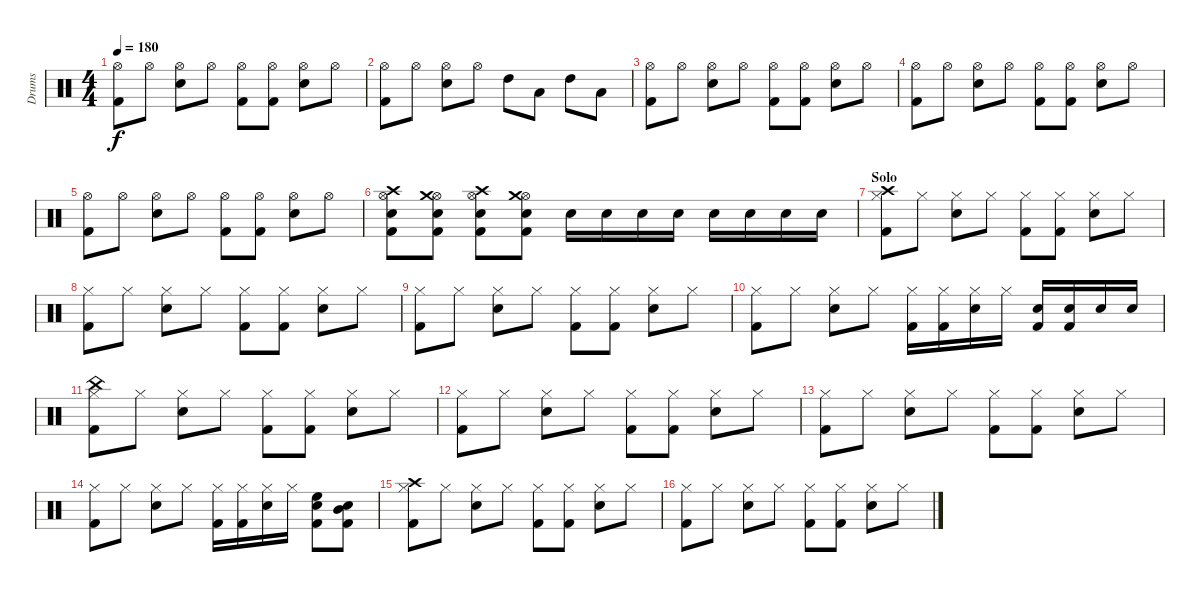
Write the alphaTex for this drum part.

\track ("Drums" "Drums") {instrument percussion}
\staff {score}
\articulation defaults
\ts (4 4)
\tempo 180
\clef neutral
\ks c
("Hi-Hat (open)" "Kick (hit) 2").8{dy f} "Hi-Hat (open)".8 ("Hi-Hat (open)" "Snare (hit) 2").8 "Hi-Hat (open)".8 ("Hi-Hat (open)" "Kick (hit) 2").8 ("Hi-Hat (open)" "Kick (hit) 2").8 ("Hi-Hat (open)" "Snare (hit) 2").8 "Hi-Hat (open)".8 |
("Hi-Hat (open)" "Kick (hit) 2").8 "Hi-Hat (open)".8 ("Hi-Hat (open)" "Snare (hit) 2").8 "Hi-Hat (open)".8 "High Tom (hit)".8 "Low Tom (hit)".8 "High Tom (hit)".8 "Low Tom (hit)".8 |
("Hi-Hat (open)" "Kick (hit) 2").8 "Hi-Hat (open)".8 ("Hi-Hat (open)" "Snare (hit) 2").8 "Hi-Hat (open)".8 ("Hi-Hat (open)" "Kick (hit) 2").8 ("Hi-Hat (open)" "Kick (hit) 2").8 ("Hi-Hat (open)" "Snare (hit) 2").8 "Hi-Hat (open)".8 |
("Hi-Hat (open)" "Kick (hit) 2").8 "Hi-Hat (open)".8 ("Hi-Hat (open)" "Snare (hit) 2").8 "Hi-Hat (open)".8 ("Hi-Hat (open)" "Kick (hit) 2").8 ("Hi-Hat (open)" "Kick (hit) 2").8 ("Hi-Hat (open)" "Snare (hit) 2").8 "Hi-Hat (open)".8 |
("Hi-Hat (open)" "Kick (hit) 2").8 "Hi-Hat (open)".8 ("Hi-Hat (open)" "Snare (hit) 2").8 "Hi-Hat (open)".8 ("Hi-Hat (open)" "Kick (hit) 2").8 ("Hi-Hat (open)" "Kick (hit) 2").8 ("Hi-Hat (open)" "Snare (hit) 2").8 "Hi-Hat (open)".8 |
("Hi-Hat (open)" "Crash high (hit)" "Snare (hit) 2" "Kick (hit) 2").8 ("Hi-Hat (open)" "Crash medium (hit)" "Snare (hit) 2" "Kick (hit) 2").8 ("Hi-Hat (open)" "Crash high (hit)" "Snare (hit) 2" "Kick (hit) 2").8 ("Hi-Hat (open)" "Crash medium (hit)" "Snare (hit) 2" "Kick (hit) 2").8 "Snare (hit) 2".16 "Snare (hit) 2".16 "Snare (hit) 2".16 "Snare (hit) 2".16 "Snare (hit) 2".16 "Snare (hit) 2".16 "Snare (hit) 2".16 "Snare (hit) 2".16 |
\section ("" "Solo")
("Hi-Hat (closed)" "Crash high (hit)" "Kick (hit) 2").8 "Hi-Hat (closed)".8 ("Hi-Hat (closed)" "Snare (hit) 2").8 "Hi-Hat (closed)".8 ("Hi-Hat (closed)" "Kick (hit) 2").8 ("Hi-Hat (closed)" "Kick (hit) 2").8 ("Hi-Hat (closed)" "Snare (hit) 2").8 "Hi-Hat (closed)".8 |
("Hi-Hat (closed)" "Kick (hit) 2").8 "Hi-Hat (closed)".8 ("Hi-Hat (closed)" "Snare (hit) 2").8 "Hi-Hat (closed)".8 ("Hi-Hat (closed)" "Kick (hit) 2").8 ("Hi-Hat (closed)" "Kick (hit) 2").8 ("Hi-Hat (closed)" "Snare (hit) 2").8 "Hi-Hat (closed)".8 |
("Hi-Hat (closed)" "Kick (hit) 2").8 "Hi-Hat (closed)".8 ("Hi-Hat (closed)" "Snare (hit) 2").8 "Hi-Hat (closed)".8 ("Hi-Hat (closed)" "Kick (hit) 2").8 ("Hi-Hat (closed)" "Kick (hit) 2").8 ("Hi-Hat (closed)" "Snare (hit) 2").8 "Hi-Hat (closed)".8 |
("Hi-Hat (closed)" "Kick (hit) 2").8 "Hi-Hat (closed)".8 ("Hi-Hat (closed)" "Snare (hit) 2").8 "Hi-Hat (closed)".8 ("Hi-Hat (closed)" "Kick (hit) 2").16 ("Hi-Hat (closed)" "Kick (hit) 2").16 ("Hi-Hat (closed)" "Snare (hit) 2").16 "Hi-Hat (closed)".16 ("Snare (hit) 2" "Kick (hit) 2").16 ("Snare (hit) 2" "Kick (hit) 2").16 "Snare (hit) 2".16 "Snare (hit) 2".16 |
("Hi-Hat (closed)" "China (hit)" "Kick (hit) 2").8 "Hi-Hat (closed)".8 ("Hi-Hat (closed)" "Snare (hit) 2").8 "Hi-Hat (closed)".8 ("Hi-Hat (closed)" "Kick (hit) 2").8 ("Hi-Hat (closed)" "Kick (hit) 2").8 ("Hi-Hat (closed)" "Snare (hit) 2").8 "Hi-Hat (closed)".8 |
("Hi-Hat (closed)" "Kick (hit) 2").8 "Hi-Hat (closed)".8 ("Hi-Hat (closed)" "Snare (hit) 2").8 "Hi-Hat (closed)".8 ("Hi-Hat (closed)" "Kick (hit) 2").8 ("Hi-Hat (closed)" "Kick (hit) 2").8 ("Hi-Hat (closed)" "Snare (hit) 2").8 "Hi-Hat (closed)".8 |
("Hi-Hat (closed)" "Kick (hit) 2").8 "Hi-Hat (closed)".8 ("Hi-Hat (closed)" "Snare (hit) 2").8 "Hi-Hat (closed)".8 ("Hi-Hat (closed)" "Kick (hit) 2").8 ("Hi-Hat (closed)" "Kick (hit) 2").8 ("Hi-Hat (closed)" "Snare (hit) 2").8 "Hi-Hat (closed)".8 |
("Hi-Hat (closed)" "Kick (hit) 2").8 "Hi-Hat (closed)".8 ("Hi-Hat (closed)" "Snare (hit) 2").8 "Hi-Hat (closed)".8 ("Hi-Hat (closed)" "Kick (hit) 2").16 ("Hi-Hat (closed)" "Kick (hit) 2").16 ("Hi-Hat (closed)" "Snare (hit) 2").16 "Hi-Hat (closed)".16 ("High Floor Tom (hit)" "Snare (hit) 2" "Kick (hit) 2").8 ("Mid Tom (hit)" "Snare (hit) 2" "Kick (hit) 2").8 |
("Hi-Hat (closed)" "Crash high (hit)" "Kick (hit) 2").8 "Hi-Hat (closed)".8 ("Hi-Hat (closed)" "Snare (hit) 2").8 "Hi-Hat (closed)".8 ("Hi-Hat (closed)" "Kick (hit) 2").8 ("Hi-Hat (closed)" "Kick (hit) 2").8 ("Hi-Hat (closed)" "Snare (hit) 2").8 "Hi-Hat (closed)".8 |
("Hi-Hat (closed)" "Kick (hit) 2").8 "Hi-Hat (closed)".8 ("Hi-Hat (closed)" "Snare (hit) 2").8 "Hi-Hat (closed)".8 ("Hi-Hat (closed)" "Kick (hit) 2").8 ("Hi-Hat (closed)" "Kick (hit) 2").8 ("Hi-Hat (closed)" "Snare (hit) 2").8 "Hi-Hat (closed)".8
